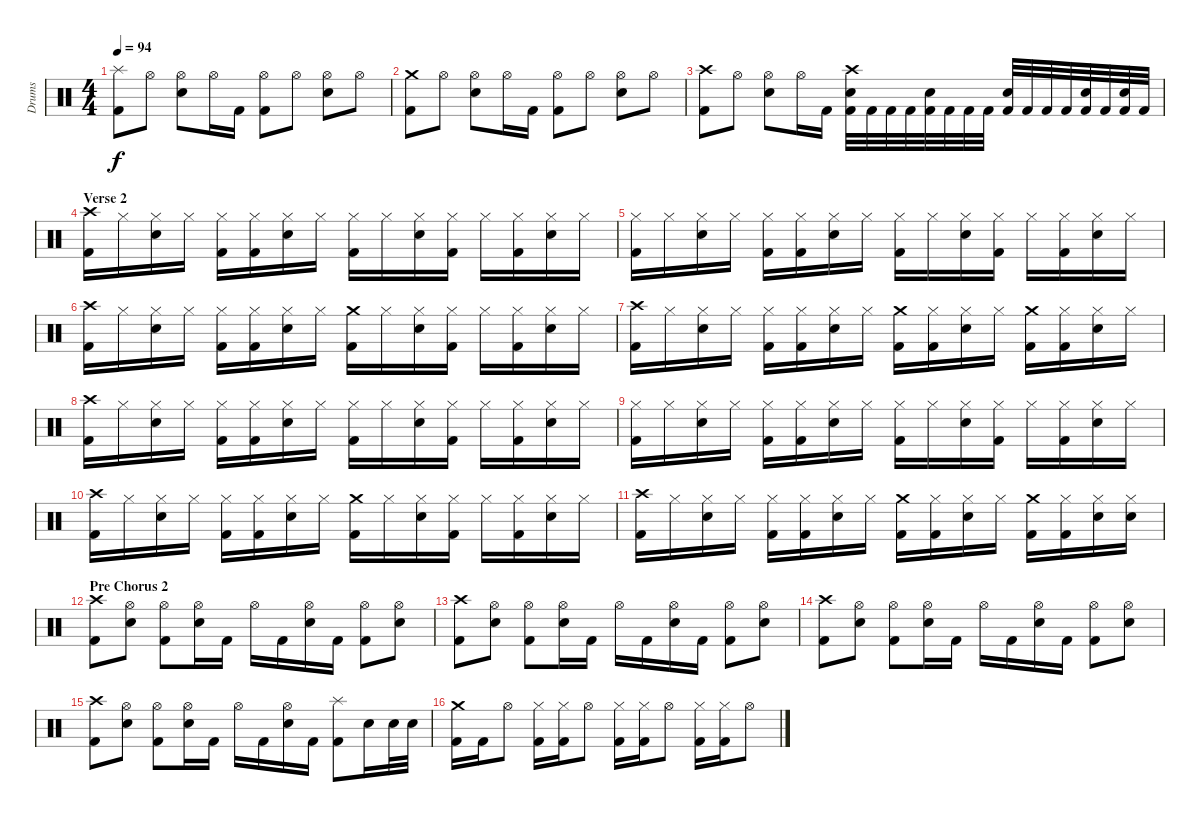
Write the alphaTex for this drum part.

\track ("Drums" "Drums") {instrument percussion}
\staff {score}
\articulation defaults
\ts (4 4)
\tempo 94
\clef neutral
\ks c
("Splash (hit)" "Kick (hit) 2").8{dy f} "Hi-Hat (open)".8 ("Hi-Hat (open)" "Electric Snare (hit)").8 "Hi-Hat (open)".16 "Kick (hit) 2".16 ("Hi-Hat (open)" "Kick (hit) 2").8 "Hi-Hat (open)".8 ("Hi-Hat (open)" "Electric Snare (hit)").8 "Hi-Hat (open)".8 |
("Crash medium (hit)" "Kick (hit) 2").8 "Hi-Hat (open)".8 ("Hi-Hat (open)" "Electric Snare (hit)").8 "Hi-Hat (open)".16 "Kick (hit) 2".16 ("Hi-Hat (open)" "Kick (hit) 2").8 "Hi-Hat (open)".8 ("Hi-Hat (open)" "Electric Snare (hit)").8 "Hi-Hat (open)".8 |
("Crash high (hit)" "Kick (hit) 2").8 "Hi-Hat (open)".8 ("Hi-Hat (open)" "Electric Snare (hit)").8 "Hi-Hat (open)".16 "Kick (hit) 2".16 ("Crash high (hit)" "Electric Snare (hit)" "Kick (hit) 2").32 "Kick (hit) 2".32 "Kick (hit) 2".32 "Kick (hit) 2".32 ("Electric Snare (hit)" "Kick (hit) 2").32 "Kick (hit) 2".32 "Kick (hit) 2".32 "Kick (hit) 2".32 ("Electric Snare (hit)" "Kick (hit) 2").32 "Kick (hit) 2".32 "Kick (hit) 2".32 "Kick (hit) 2".32 ("Electric Snare (hit)" "Kick (hit) 2").32 "Kick (hit) 2".32 ("Electric Snare (hit)" "Kick (hit) 2").32 "Kick (hit) 2".32 |
\section ("" "Verse 2")
("Crash high (hit)" "Kick (hit) 2").16 "Hi-Hat (closed)".16 ("Hi-Hat (closed)" "Electric Snare (hit)").16 "Hi-Hat (closed)".16 ("Hi-Hat (closed)" "Kick (hit) 2").16 ("Hi-Hat (closed)" "Kick (hit) 2").16 ("Hi-Hat (closed)" "Electric Snare (hit)").16 "Hi-Hat (closed)".16 ("Hi-Hat (closed)" "Kick (hit) 2").16 "Hi-Hat (closed)".16 ("Hi-Hat (closed)" "Electric Snare (hit)").16 ("Hi-Hat (closed)" "Kick (hit) 2").16 "Hi-Hat (closed)".16 ("Hi-Hat (closed)" "Kick (hit) 2").16 ("Hi-Hat (closed)" "Electric Snare (hit)").16 "Hi-Hat (closed)".16 |
("Hi-Hat (closed)" "Kick (hit) 2").16 "Hi-Hat (closed)".16 ("Hi-Hat (closed)" "Electric Snare (hit)").16 "Hi-Hat (closed)".16 ("Hi-Hat (closed)" "Kick (hit) 2").16 ("Hi-Hat (closed)" "Kick (hit) 2").16 ("Hi-Hat (closed)" "Electric Snare (hit)").16 "Hi-Hat (closed)".16 ("Hi-Hat (closed)" "Kick (hit) 2").16 "Hi-Hat (closed)".16 ("Hi-Hat (closed)" "Electric Snare (hit)").16 ("Hi-Hat (closed)" "Kick (hit) 2").16 "Hi-Hat (closed)".16 ("Hi-Hat (closed)" "Kick (hit) 2").16 ("Hi-Hat (closed)" "Electric Snare (hit)").16 "Hi-Hat (closed)".16 |
("Crash high (hit)" "Kick (hit) 2").16 "Hi-Hat (closed)".16 ("Hi-Hat (closed)" "Electric Snare (hit)").16 "Hi-Hat (closed)".16 ("Hi-Hat (closed)" "Kick (hit) 2").16 ("Hi-Hat (closed)" "Kick (hit) 2").16 ("Hi-Hat (closed)" "Electric Snare (hit)").16 "Hi-Hat (closed)".16 ("Crash medium (hit)" "Kick (hit) 2").16 "Hi-Hat (closed)".16 ("Hi-Hat (closed)" "Electric Snare (hit)").16 ("Hi-Hat (closed)" "Kick (hit) 2").16 "Hi-Hat (closed)".16 ("Hi-Hat (closed)" "Kick (hit) 2").16 ("Hi-Hat (closed)" "Electric Snare (hit)").16 "Hi-Hat (closed)".16 |
("Crash high (hit)" "Kick (hit) 2").16 "Hi-Hat (closed)".16 ("Hi-Hat (closed)" "Electric Snare (hit)").16 "Hi-Hat (closed)".16 ("Hi-Hat (closed)" "Kick (hit) 2").16 ("Hi-Hat (closed)" "Kick (hit) 2").16 ("Hi-Hat (closed)" "Electric Snare (hit)").16 "Hi-Hat (closed)".16 ("Crash medium (hit)" "Kick (hit) 2").16 ("Hi-Hat (closed)" "Kick (hit) 2").16 ("Hi-Hat (closed)" "Electric Snare (hit)").16 "Hi-Hat (closed)".16 ("Crash medium (hit)" "Kick (hit) 2").16 ("Hi-Hat (closed)" "Kick (hit) 2").16 ("Hi-Hat (closed)" "Electric Snare (hit)").16 "Hi-Hat (closed)".16 |
("Crash high (hit)" "Kick (hit) 2").16 "Hi-Hat (closed)".16 ("Hi-Hat (closed)" "Electric Snare (hit)").16 "Hi-Hat (closed)".16 ("Hi-Hat (closed)" "Kick (hit) 2").16 ("Hi-Hat (closed)" "Kick (hit) 2").16 ("Hi-Hat (closed)" "Electric Snare (hit)").16 "Hi-Hat (closed)".16 ("Hi-Hat (closed)" "Kick (hit) 2").16 "Hi-Hat (closed)".16 ("Hi-Hat (closed)" "Electric Snare (hit)").16 ("Hi-Hat (closed)" "Kick (hit) 2").16 "Hi-Hat (closed)".16 ("Hi-Hat (closed)" "Kick (hit) 2").16 ("Hi-Hat (closed)" "Electric Snare (hit)").16 "Hi-Hat (closed)".16 |
("Hi-Hat (closed)" "Kick (hit) 2").16 "Hi-Hat (closed)".16 ("Hi-Hat (closed)" "Electric Snare (hit)").16 "Hi-Hat (closed)".16 ("Hi-Hat (closed)" "Kick (hit) 2").16 ("Hi-Hat (closed)" "Kick (hit) 2").16 ("Hi-Hat (closed)" "Electric Snare (hit)").16 "Hi-Hat (closed)".16 ("Hi-Hat (closed)" "Kick (hit) 2").16 "Hi-Hat (closed)".16 ("Hi-Hat (closed)" "Electric Snare (hit)").16 ("Hi-Hat (closed)" "Kick (hit) 2").16 "Hi-Hat (closed)".16 ("Hi-Hat (closed)" "Kick (hit) 2").16 ("Hi-Hat (closed)" "Electric Snare (hit)").16 "Hi-Hat (closed)".16 |
("Crash high (hit)" "Kick (hit) 2").16 "Hi-Hat (closed)".16 ("Hi-Hat (closed)" "Electric Snare (hit)").16 "Hi-Hat (closed)".16 ("Hi-Hat (closed)" "Kick (hit) 2").16 ("Hi-Hat (closed)" "Kick (hit) 2").16 ("Hi-Hat (closed)" "Electric Snare (hit)").16 "Hi-Hat (closed)".16 ("Crash medium (hit)" "Kick (hit) 2").16 "Hi-Hat (closed)".16 ("Hi-Hat (closed)" "Electric Snare (hit)").16 ("Hi-Hat (closed)" "Kick (hit) 2").16 "Hi-Hat (closed)".16 ("Hi-Hat (closed)" "Kick (hit) 2").16 ("Hi-Hat (closed)" "Electric Snare (hit)").16 "Hi-Hat (closed)".16 |
("Crash high (hit)" "Kick (hit) 2").16 "Hi-Hat (closed)".16 ("Hi-Hat (closed)" "Electric Snare (hit)").16 "Hi-Hat (closed)".16 ("Hi-Hat (closed)" "Kick (hit) 2").16 ("Hi-Hat (closed)" "Kick (hit) 2").16 ("Hi-Hat (closed)" "Electric Snare (hit)").16 "Hi-Hat (closed)".16 ("Crash medium (hit)" "Kick (hit) 2").16 ("Hi-Hat (closed)" "Kick (hit) 2").16 ("Hi-Hat (closed)" "Electric Snare (hit)").16 "Hi-Hat (closed)".16 ("Crash medium (hit)" "Kick (hit) 2").16 ("Hi-Hat (closed)" "Kick (hit) 2").16 ("Hi-Hat (closed)" "Electric Snare (hit)").16 ("Hi-Hat (closed)" "Electric Snare (hit)").16 |
\section ("" "Pre Chorus 2")
("Crash high (hit)" "Kick (hit) 2").8 ("Hi-Hat (open)" "Electric Snare (hit)").8 ("Hi-Hat (open)" "Kick (hit) 2").8 ("Hi-Hat (open)" "Electric Snare (hit)").16 "Kick (hit) 2".16 "Hi-Hat (open)".16 "Kick (hit) 2".16 ("Hi-Hat (open)" "Electric Snare (hit)").16 "Kick (hit) 2".16 ("Hi-Hat (open)" "Kick (hit) 2").8 ("Hi-Hat (open)" "Electric Snare (hit)").8 |
("Crash high (hit)" "Kick (hit) 2").8 ("Hi-Hat (open)" "Electric Snare (hit)").8 ("Hi-Hat (open)" "Kick (hit) 2").8 ("Hi-Hat (open)" "Electric Snare (hit)").16 "Kick (hit) 2".16 "Hi-Hat (open)".16 "Kick (hit) 2".16 ("Hi-Hat (open)" "Electric Snare (hit)").16 "Kick (hit) 2".16 ("Hi-Hat (open)" "Kick (hit) 2").8 ("Hi-Hat (open)" "Electric Snare (hit)").8 |
("Crash high (hit)" "Kick (hit) 2").8 ("Hi-Hat (open)" "Electric Snare (hit)").8 ("Hi-Hat (open)" "Kick (hit) 2").8 ("Hi-Hat (open)" "Electric Snare (hit)").16 "Kick (hit) 2".16 "Hi-Hat (open)".16 "Kick (hit) 2".16 ("Hi-Hat (open)" "Electric Snare (hit)").16 "Kick (hit) 2".16 ("Hi-Hat (open)" "Kick (hit) 2").8 ("Hi-Hat (open)" "Electric Snare (hit)").8 |
("Crash high (hit)" "Kick (hit) 2").8 ("Hi-Hat (open)" "Electric Snare (hit)").8 ("Hi-Hat (open)" "Kick (hit) 2").8 ("Hi-Hat (open)" "Electric Snare (hit)").16 "Kick (hit) 2".16 "Hi-Hat (open)".16 "Kick (hit) 2".16 ("Hi-Hat (open)" "Electric Snare (hit)").16 "Kick (hit) 2".16 ("Splash (hit)" "Kick (hit) 2").8 "Electric Snare (hit)".16 "Electric Snare (hit)".32 "Electric Snare (hit)".32 |
("Crash medium (hit)" "Kick (hit) 2").16 "Kick (hit) 2".16 "Hi-Hat (open)".8 ("Hi-Hat (closed)" "Kick (hit) 2").16 ("Hi-Hat (closed)" "Kick (hit) 2").16 "Hi-Hat (open)".8 ("Hi-Hat (closed)" "Kick (hit) 2").16 ("Hi-Hat (closed)" "Kick (hit) 2").16 "Hi-Hat (open)".8 ("Hi-Hat (closed)" "Kick (hit) 2").16 ("Hi-Hat (closed)" "Kick (hit) 2").16 "Hi-Hat (open)".8
